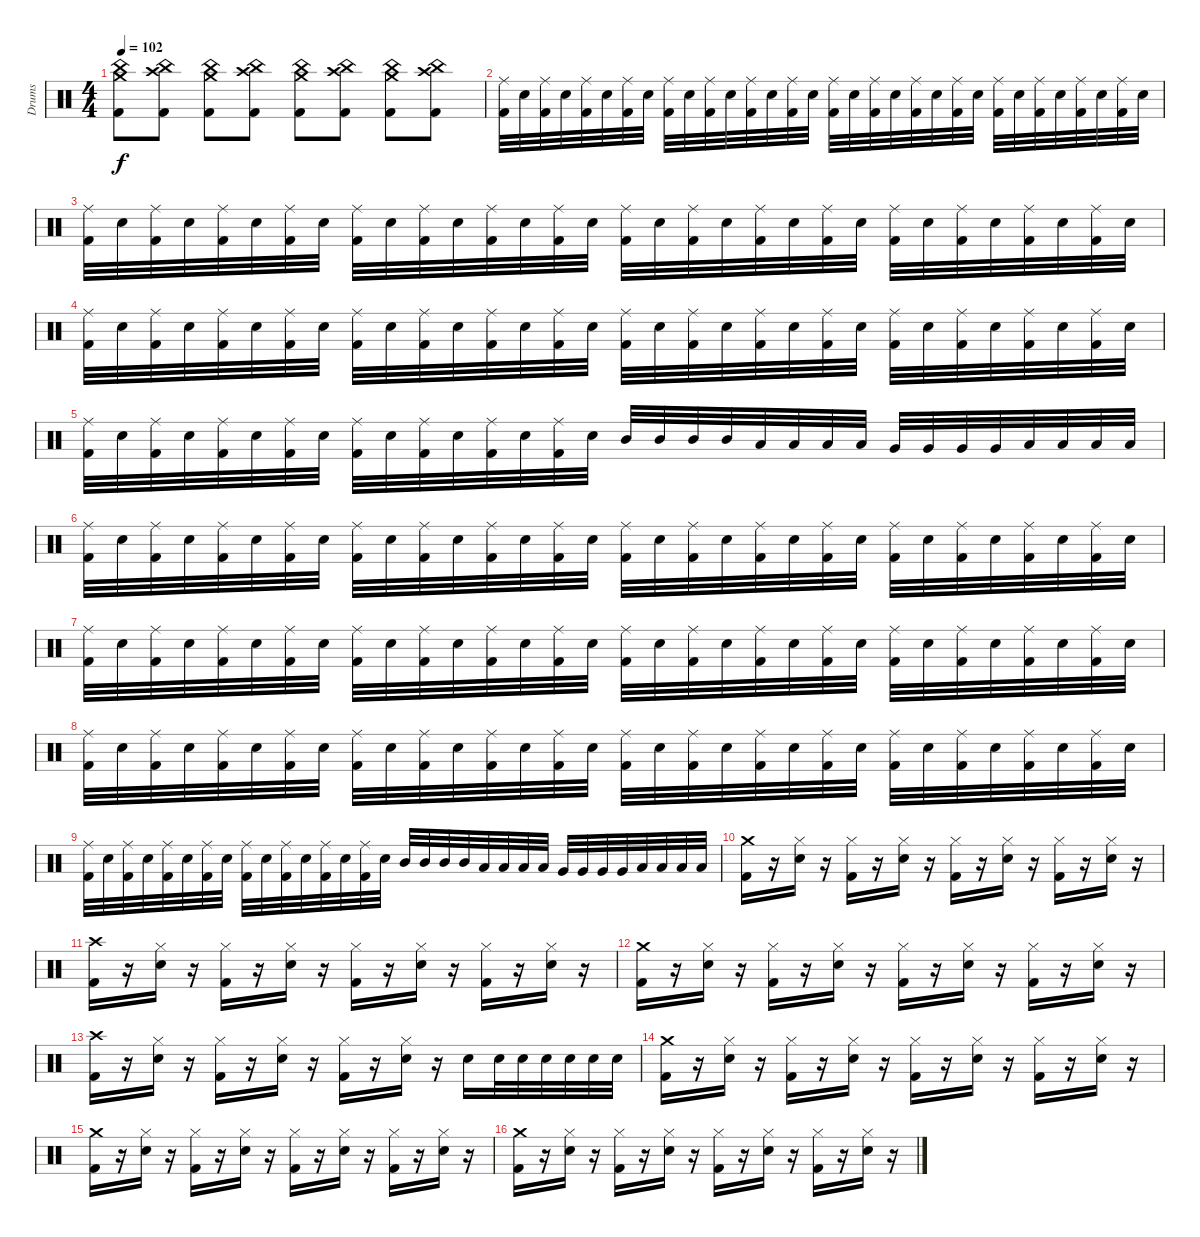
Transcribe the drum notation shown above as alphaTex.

\track ("Drums" "Drums") {instrument percussion}
\staff {score}
\articulation defaults
\ts (4 4)
\tempo 102
\clef neutral
\ks c
("China (hit)" "Crash medium (hit)" "Kick (hit) 2").8{dy f} ("China (hit)" "Crash high (hit)" "Kick (hit) 2").8 ("China (hit)" "Crash medium (hit)" "Kick (hit) 2").8 ("China (hit)" "Crash high (hit)" "Kick (hit) 2").8 ("China (hit)" "Crash medium (hit)" "Kick (hit) 2").8 ("China (hit)" "Crash high (hit)" "Kick (hit) 2").8 ("China (hit)" "Crash medium (hit)" "Kick (hit) 2").8 ("China (hit)" "Crash high (hit)" "Kick (hit) 2").8 |
("Ride (middle)" "Kick (hit) 2").32 "Electric Snare (hit)".32 ("Ride (middle)" "Kick (hit) 2").32 "Electric Snare (hit)".32 ("Ride (middle)" "Kick (hit) 2").32 "Electric Snare (hit)".32 ("Ride (middle)" "Kick (hit) 2").32 "Electric Snare (hit)".32 ("Ride (middle)" "Kick (hit) 2").32 "Electric Snare (hit)".32 ("Ride (middle)" "Kick (hit) 2").32 "Electric Snare (hit)".32 ("Ride (middle)" "Kick (hit) 2").32 "Electric Snare (hit)".32 ("Ride (middle)" "Kick (hit) 2").32 "Electric Snare (hit)".32 ("Ride (middle)" "Kick (hit) 2").32 "Electric Snare (hit)".32 ("Ride (middle)" "Kick (hit) 2").32 "Electric Snare (hit)".32 ("Ride (middle)" "Kick (hit) 2").32 "Electric Snare (hit)".32 ("Ride (middle)" "Kick (hit) 2").32 "Electric Snare (hit)".32 ("Ride (middle)" "Kick (hit) 2").32 "Electric Snare (hit)".32 ("Ride (middle)" "Kick (hit) 2").32 "Electric Snare (hit)".32 ("Ride (middle)" "Kick (hit) 2").32 "Electric Snare (hit)".32 ("Ride (middle)" "Kick (hit) 2").32 "Electric Snare (hit)".32 |
("Ride (middle)" "Kick (hit) 2").32 "Electric Snare (hit)".32 ("Ride (middle)" "Kick (hit) 2").32 "Electric Snare (hit)".32 ("Ride (middle)" "Kick (hit) 2").32 "Electric Snare (hit)".32 ("Ride (middle)" "Kick (hit) 2").32 "Electric Snare (hit)".32 ("Ride (middle)" "Kick (hit) 2").32 "Electric Snare (hit)".32 ("Ride (middle)" "Kick (hit) 2").32 "Electric Snare (hit)".32 ("Ride (middle)" "Kick (hit) 2").32 "Electric Snare (hit)".32 ("Ride (middle)" "Kick (hit) 2").32 "Electric Snare (hit)".32 ("Ride (middle)" "Kick (hit) 2").32 "Electric Snare (hit)".32 ("Ride (middle)" "Kick (hit) 2").32 "Electric Snare (hit)".32 ("Ride (middle)" "Kick (hit) 2").32 "Electric Snare (hit)".32 ("Ride (middle)" "Kick (hit) 2").32 "Electric Snare (hit)".32 ("Ride (middle)" "Kick (hit) 2").32 "Electric Snare (hit)".32 ("Ride (middle)" "Kick (hit) 2").32 "Electric Snare (hit)".32 ("Ride (middle)" "Kick (hit) 2").32 "Electric Snare (hit)".32 ("Ride (middle)" "Kick (hit) 2").32 "Electric Snare (hit)".32 |
("Ride (middle)" "Kick (hit) 2").32 "Electric Snare (hit)".32 ("Ride (middle)" "Kick (hit) 2").32 "Electric Snare (hit)".32 ("Ride (middle)" "Kick (hit) 2").32 "Electric Snare (hit)".32 ("Ride (middle)" "Kick (hit) 2").32 "Electric Snare (hit)".32 ("Ride (middle)" "Kick (hit) 2").32 "Electric Snare (hit)".32 ("Ride (middle)" "Kick (hit) 2").32 "Electric Snare (hit)".32 ("Ride (middle)" "Kick (hit) 2").32 "Electric Snare (hit)".32 ("Ride (middle)" "Kick (hit) 2").32 "Electric Snare (hit)".32 ("Ride (middle)" "Kick (hit) 2").32 "Electric Snare (hit)".32 ("Ride (middle)" "Kick (hit) 2").32 "Electric Snare (hit)".32 ("Ride (middle)" "Kick (hit) 2").32 "Electric Snare (hit)".32 ("Ride (middle)" "Kick (hit) 2").32 "Electric Snare (hit)".32 ("Ride (middle)" "Kick (hit) 2").32 "Electric Snare (hit)".32 ("Ride (middle)" "Kick (hit) 2").32 "Electric Snare (hit)".32 ("Ride (middle)" "Kick (hit) 2").32 "Electric Snare (hit)".32 ("Ride (middle)" "Kick (hit) 2").32 "Electric Snare (hit)".32 |
("Ride (middle)" "Kick (hit) 2").32 "Electric Snare (hit)".32 ("Ride (middle)" "Kick (hit) 2").32 "Electric Snare (hit)".32 ("Ride (middle)" "Kick (hit) 2").32 "Electric Snare (hit)".32 ("Ride (middle)" "Kick (hit) 2").32 "Electric Snare (hit)".32 ("Ride (middle)" "Kick (hit) 2").32 "Electric Snare (hit)".32 ("Ride (middle)" "Kick (hit) 2").32 "Electric Snare (hit)".32 ("Ride (middle)" "Kick (hit) 2").32 "Electric Snare (hit)".32 ("Ride (middle)" "Kick (hit) 2").32 "Electric Snare (hit)".32 "Mid Tom (hit)".32 "Mid Tom (hit)".32 "Mid Tom (hit)".32 "Mid Tom (hit)".32 "Low Tom (hit)".32 "Low Tom (hit)".32 "Low Tom (hit)".32 "Low Tom (hit)".32 "Very Low Tom (hit)".32 "Very Low Tom (hit)".32 "Very Low Tom (hit)".32 "Very Low Tom (hit)".32 "Low Floor Tom (hit)".32 "Low Floor Tom (hit)".32 "Low Floor Tom (hit)".32 "Low Floor Tom (hit)".32 |
("Ride (middle)" "Kick (hit) 2").32 "Electric Snare (hit)".32 ("Ride (middle)" "Kick (hit) 2").32 "Electric Snare (hit)".32 ("Ride (middle)" "Kick (hit) 2").32 "Electric Snare (hit)".32 ("Ride (middle)" "Kick (hit) 2").32 "Electric Snare (hit)".32 ("Ride (middle)" "Kick (hit) 2").32 "Electric Snare (hit)".32 ("Ride (middle)" "Kick (hit) 2").32 "Electric Snare (hit)".32 ("Ride (middle)" "Kick (hit) 2").32 "Electric Snare (hit)".32 ("Ride (middle)" "Kick (hit) 2").32 "Electric Snare (hit)".32 ("Ride (middle)" "Kick (hit) 2").32 "Electric Snare (hit)".32 ("Ride (middle)" "Kick (hit) 2").32 "Electric Snare (hit)".32 ("Ride (middle)" "Kick (hit) 2").32 "Electric Snare (hit)".32 ("Ride (middle)" "Kick (hit) 2").32 "Electric Snare (hit)".32 ("Ride (middle)" "Kick (hit) 2").32 "Electric Snare (hit)".32 ("Ride (middle)" "Kick (hit) 2").32 "Electric Snare (hit)".32 ("Ride (middle)" "Kick (hit) 2").32 "Electric Snare (hit)".32 ("Ride (middle)" "Kick (hit) 2").32 "Electric Snare (hit)".32 |
("Ride (middle)" "Kick (hit) 2").32 "Electric Snare (hit)".32 ("Ride (middle)" "Kick (hit) 2").32 "Electric Snare (hit)".32 ("Ride (middle)" "Kick (hit) 2").32 "Electric Snare (hit)".32 ("Ride (middle)" "Kick (hit) 2").32 "Electric Snare (hit)".32 ("Ride (middle)" "Kick (hit) 2").32 "Electric Snare (hit)".32 ("Ride (middle)" "Kick (hit) 2").32 "Electric Snare (hit)".32 ("Ride (middle)" "Kick (hit) 2").32 "Electric Snare (hit)".32 ("Ride (middle)" "Kick (hit) 2").32 "Electric Snare (hit)".32 ("Ride (middle)" "Kick (hit) 2").32 "Electric Snare (hit)".32 ("Ride (middle)" "Kick (hit) 2").32 "Electric Snare (hit)".32 ("Ride (middle)" "Kick (hit) 2").32 "Electric Snare (hit)".32 ("Ride (middle)" "Kick (hit) 2").32 "Electric Snare (hit)".32 ("Ride (middle)" "Kick (hit) 2").32 "Electric Snare (hit)".32 ("Ride (middle)" "Kick (hit) 2").32 "Electric Snare (hit)".32 ("Ride (middle)" "Kick (hit) 2").32 "Electric Snare (hit)".32 ("Ride (middle)" "Kick (hit) 2").32 "Electric Snare (hit)".32 |
("Ride (middle)" "Kick (hit) 2").32 "Electric Snare (hit)".32 ("Ride (middle)" "Kick (hit) 2").32 "Electric Snare (hit)".32 ("Ride (middle)" "Kick (hit) 2").32 "Electric Snare (hit)".32 ("Ride (middle)" "Kick (hit) 2").32 "Electric Snare (hit)".32 ("Ride (middle)" "Kick (hit) 2").32 "Electric Snare (hit)".32 ("Ride (middle)" "Kick (hit) 2").32 "Electric Snare (hit)".32 ("Ride (middle)" "Kick (hit) 2").32 "Electric Snare (hit)".32 ("Ride (middle)" "Kick (hit) 2").32 "Electric Snare (hit)".32 ("Ride (middle)" "Kick (hit) 2").32 "Electric Snare (hit)".32 ("Ride (middle)" "Kick (hit) 2").32 "Electric Snare (hit)".32 ("Ride (middle)" "Kick (hit) 2").32 "Electric Snare (hit)".32 ("Ride (middle)" "Kick (hit) 2").32 "Electric Snare (hit)".32 ("Ride (middle)" "Kick (hit) 2").32 "Electric Snare (hit)".32 ("Ride (middle)" "Kick (hit) 2").32 "Electric Snare (hit)".32 ("Ride (middle)" "Kick (hit) 2").32 "Electric Snare (hit)".32 ("Ride (middle)" "Kick (hit) 2").32 "Electric Snare (hit)".32 |
("Ride (middle)" "Kick (hit) 2").32 "Electric Snare (hit)".32 ("Ride (middle)" "Kick (hit) 2").32 "Electric Snare (hit)".32 ("Ride (middle)" "Kick (hit) 2").32 "Electric Snare (hit)".32 ("Ride (middle)" "Kick (hit) 2").32 "Electric Snare (hit)".32 ("Ride (middle)" "Kick (hit) 2").32 "Electric Snare (hit)".32 ("Ride (middle)" "Kick (hit) 2").32 "Electric Snare (hit)".32 ("Ride (middle)" "Kick (hit) 2").32 "Electric Snare (hit)".32 ("Ride (middle)" "Kick (hit) 2").32 "Electric Snare (hit)".32 "Mid Tom (hit)".32 "Mid Tom (hit)".32 "Mid Tom (hit)".32 "Mid Tom (hit)".32 "Low Tom (hit)".32 "Low Tom (hit)".32 "Low Tom (hit)".32 "Low Tom (hit)".32 "Very Low Tom (hit)".32 "Very Low Tom (hit)".32 "Very Low Tom (hit)".32 "Very Low Tom (hit)".32 "Low Floor Tom (hit)".32 "Low Floor Tom (hit)".32 "Low Floor Tom (hit)".32 "Low Floor Tom (hit)".32 |
\section ("" "")
("Crash medium (hit)" "Kick (hit) 2").16 r.16 ("Hi-Hat (closed)" "Electric Snare (hit)").16 r.16 ("Hi-Hat (closed)" "Kick (hit) 2").16 r.16 ("Hi-Hat (closed)" "Electric Snare (hit)").16 r.16 ("Hi-Hat (closed)" "Kick (hit) 2").16 r.16 ("Hi-Hat (closed)" "Electric Snare (hit)").16 r.16 ("Hi-Hat (closed)" "Kick (hit) 2").16 r.16 ("Hi-Hat (closed)" "Electric Snare (hit)").16 r.16 |
("Crash high (hit)" "Kick (hit) 2").16 r.16 ("Hi-Hat (closed)" "Electric Snare (hit)").16 r.16 ("Hi-Hat (closed)" "Kick (hit) 2").16 r.16 ("Hi-Hat (closed)" "Electric Snare (hit)").16 r.16 ("Hi-Hat (closed)" "Kick (hit) 2").16 r.16 ("Hi-Hat (closed)" "Electric Snare (hit)").16 r.16 ("Hi-Hat (closed)" "Kick (hit) 2").16 r.16 ("Hi-Hat (closed)" "Electric Snare (hit)").16 r.16 |
("Crash medium (hit)" "Kick (hit) 2").16 r.16 ("Hi-Hat (closed)" "Electric Snare (hit)").16 r.16 ("Hi-Hat (closed)" "Kick (hit) 2").16 r.16 ("Hi-Hat (closed)" "Electric Snare (hit)").16 r.16 ("Hi-Hat (closed)" "Kick (hit) 2").16 r.16 ("Hi-Hat (closed)" "Electric Snare (hit)").16 r.16 ("Hi-Hat (closed)" "Kick (hit) 2").16 r.16 ("Hi-Hat (closed)" "Electric Snare (hit)").16 r.16 |
("Crash high (hit)" "Kick (hit) 2").16 r.16 ("Hi-Hat (closed)" "Electric Snare (hit)").16 r.16 ("Hi-Hat (closed)" "Kick (hit) 2").16 r.16 ("Hi-Hat (closed)" "Electric Snare (hit)").16 r.16 ("Hi-Hat (closed)" "Kick (hit) 2").16 r.16 ("Hi-Hat (closed)" "Electric Snare (hit)").16 r.16 "Electric Snare (hit)".16 "Electric Snare (hit)".32 "Electric Snare (hit)".32 "Electric Snare (hit)".32 "Electric Snare (hit)".32 "Electric Snare (hit)".32 "Electric Snare (hit)".32 |
("Crash medium (hit)" "Kick (hit) 2").16 r.16 ("Hi-Hat (closed)" "Electric Snare (hit)").16 r.16 ("Hi-Hat (closed)" "Kick (hit) 2").16 r.16 ("Hi-Hat (closed)" "Electric Snare (hit)").16 r.16 ("Hi-Hat (closed)" "Kick (hit) 2").16 r.16 ("Hi-Hat (closed)" "Electric Snare (hit)").16 r.16 ("Hi-Hat (closed)" "Kick (hit) 2").16 r.16 ("Hi-Hat (closed)" "Electric Snare (hit)").16 r.16 |
("Crash medium (hit)" "Kick (hit) 2").16 r.16 ("Hi-Hat (closed)" "Electric Snare (hit)").16 r.16 ("Hi-Hat (closed)" "Kick (hit) 2").16 r.16 ("Hi-Hat (closed)" "Electric Snare (hit)").16 r.16 ("Hi-Hat (closed)" "Kick (hit) 2").16 r.16 ("Hi-Hat (closed)" "Electric Snare (hit)").16 r.16 ("Hi-Hat (closed)" "Kick (hit) 2").16 r.16 ("Hi-Hat (closed)" "Electric Snare (hit)").16 r.16 |
("Crash medium (hit)" "Kick (hit) 2").16 r.16 ("Hi-Hat (closed)" "Electric Snare (hit)").16 r.16 ("Hi-Hat (closed)" "Kick (hit) 2").16 r.16 ("Hi-Hat (closed)" "Electric Snare (hit)").16 r.16 ("Hi-Hat (closed)" "Kick (hit) 2").16 r.16 ("Hi-Hat (closed)" "Electric Snare (hit)").16 r.16 ("Hi-Hat (closed)" "Kick (hit) 2").16 r.16 ("Hi-Hat (closed)" "Electric Snare (hit)").16 r.16
